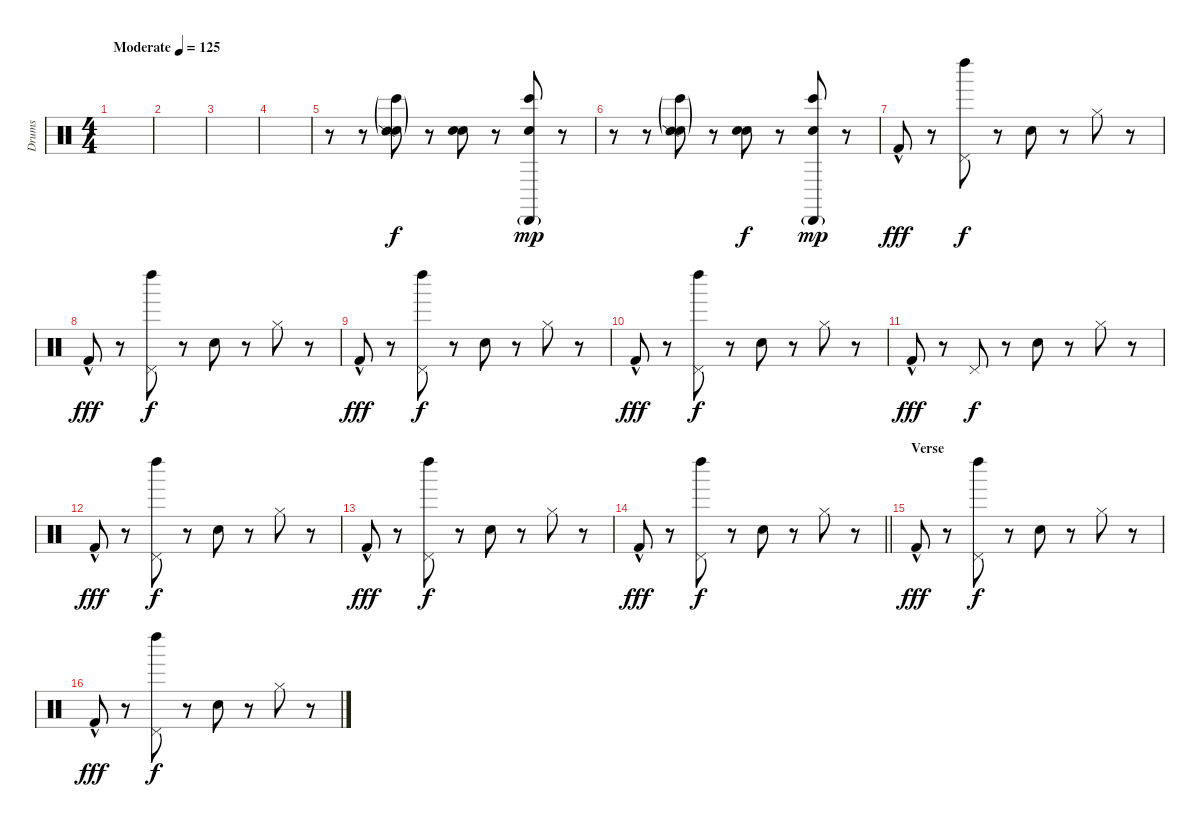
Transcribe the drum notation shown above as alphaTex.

\track ("Drums" "Drums") {instrument percussion}
\staff {score}
\articulation defaults
\ts (4 4)
\tempo (125 "Moderate")
\clef neutral
\ks c
|
|
|
|
r.8 r.8 ("Bongo High (hit)"{g} "Hand Clap (hit)"{g} "Snare (side stick) 2"{g}).8 r.8 ("Hand Clap (hit)" "Hand Clap (hit)").8{dy f} r.8 ("Hand Clap (hit)" "Bongo High (hit)" "Cabasa (hit)"{g}).8{dy mp} r.8 |
r.8 r.8 ("Bongo High (hit)"{g} "Hand Clap (hit)"{g} "Snare (side stick) 2"{g}).8 r.8 ("Hand Clap (hit)" "Hand Clap (hit)").8{dy f} r.8 ("Hand Clap (hit)" "Bongo High (hit)" "Cabasa (hit)"{g}).8{dy mp} r.8 |
"Kick (hit) 2"{hac}.8{dy fff} r.8 ("Pedal Hi-Hat (hit)" "Left Maraca (hit)").8{dy f} r.8 "Hand Clap (hit)".8 r.8 "Hi-Hat (closed)".8 r.8 |
"Kick (hit) 2"{hac}.8{dy fff} r.8 ("Pedal Hi-Hat (hit)" "Left Maraca (hit)").8{dy f} r.8 "Hand Clap (hit)".8 r.8 "Hi-Hat (closed)".8 r.8 |
"Kick (hit) 2"{hac}.8{dy fff} r.8 ("Pedal Hi-Hat (hit)" "Left Maraca (hit)").8{dy f} r.8 "Hand Clap (hit)".8 r.8 "Hi-Hat (closed)".8 r.8 |
"Kick (hit) 2"{hac}.8{dy fff} r.8 ("Pedal Hi-Hat (hit)" "Left Maraca (hit)").8{dy f} r.8 "Hand Clap (hit)".8 r.8 "Hi-Hat (closed)".8 r.8 |
"Kick (hit) 2"{hac}.8{dy fff} r.8 "Pedal Hi-Hat (hit)".8{dy f} r.8 "Hand Clap (hit)".8 r.8 "Hi-Hat (closed)".8 r.8 |
"Kick (hit) 2"{hac}.8{dy fff} r.8 ("Pedal Hi-Hat (hit)" "Left Maraca (hit)").8{dy f} r.8 "Hand Clap (hit)".8 r.8 "Hi-Hat (closed)".8 r.8 |
"Kick (hit) 2"{hac}.8{dy fff} r.8 ("Pedal Hi-Hat (hit)" "Left Maraca (hit)").8{dy f} r.8 "Hand Clap (hit)".8 r.8 "Hi-Hat (closed)".8 r.8 |
\barLineRight lightlight "Kick (hit) 2"{hac}.8{dy fff}
r.8 ("Pedal Hi-Hat (hit)" "Left Maraca (hit)").8{dy f} r.8 "Hand Clap (hit)".8 r.8 "Hi-Hat (closed)".8 r.8 |
\section ("" "Verse")
"Kick (hit) 2"{hac}.8{dy fff} r.8 ("Pedal Hi-Hat (hit)" "Left Maraca (hit)").8{dy f} r.8 "Hand Clap (hit)".8 r.8 "Hi-Hat (closed)".8 r.8 |
"Kick (hit) 2"{hac}.8{dy fff} r.8 ("Pedal Hi-Hat (hit)" "Left Maraca (hit)").8{dy f} r.8 "Hand Clap (hit)".8 r.8 "Hi-Hat (closed)".8 r.8
